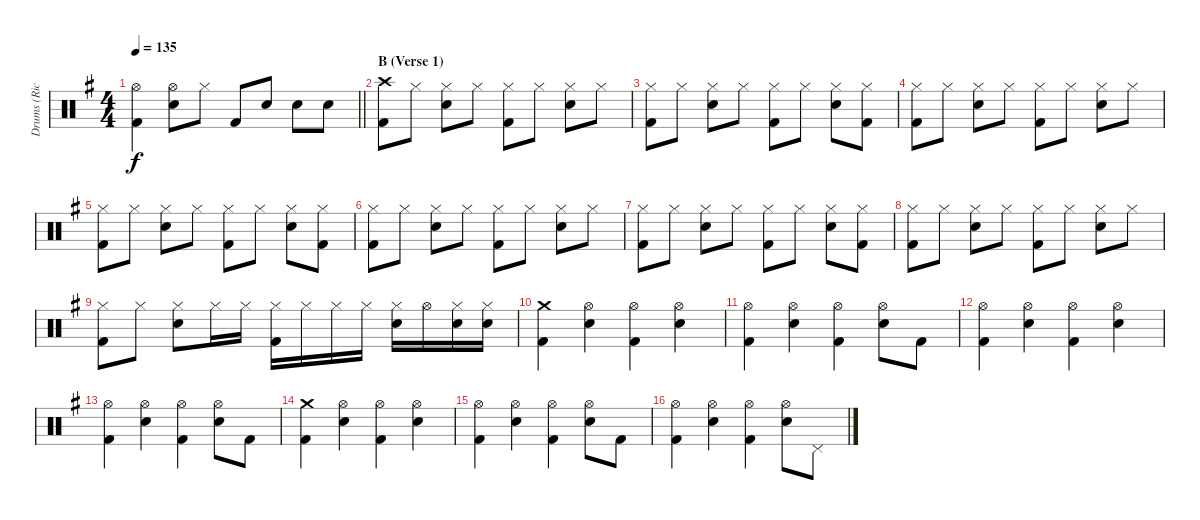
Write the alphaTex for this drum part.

\track ("Drums (Richard Evensand)" "Drums (Ric") {instrument percussion}
\staff {score}
\articulation defaults
\ts (4 4)
\tempo 135
\clef neutral
\barLineRight lightlight
\ks eminor
("Hi-Hat (open)" "Kick (hit) 2").4{dy f} ("Hi-Hat (open)" "Electric Snare (hit)").8 "Hi-Hat (closed)".8 "Kick (hit) 2".8 "Electric Snare (hit)".8 "Electric Snare (hit)".8 "Electric Snare (hit)".8 |
\section ("" "B (Verse 1)")
("Crash high (hit)" "Kick (hit) 2").8 "Hi-Hat (closed)".8 ("Hi-Hat (closed)" "Electric Snare (hit)").8 "Hi-Hat (closed)".8 ("Hi-Hat (closed)" "Kick (hit) 2").8 "Hi-Hat (closed)".8 ("Hi-Hat (closed)" "Electric Snare (hit)").8 "Hi-Hat (closed)".8 |
("Hi-Hat (closed)" "Kick (hit) 2").8 "Hi-Hat (closed)".8 ("Hi-Hat (closed)" "Electric Snare (hit)").8 "Hi-Hat (closed)".8 ("Hi-Hat (closed)" "Kick (hit) 2").8 "Hi-Hat (closed)".8 ("Hi-Hat (closed)" "Electric Snare (hit)").8 ("Hi-Hat (closed)" "Kick (hit) 2").8 |
("Hi-Hat (closed)" "Kick (hit) 2").8 "Hi-Hat (closed)".8 ("Hi-Hat (closed)" "Electric Snare (hit)").8 "Hi-Hat (closed)".8 ("Hi-Hat (closed)" "Kick (hit) 2").8 "Hi-Hat (closed)".8 ("Hi-Hat (closed)" "Electric Snare (hit)").8 "Hi-Hat (closed)".8 |
("Hi-Hat (closed)" "Kick (hit) 2").8 "Hi-Hat (closed)".8 ("Hi-Hat (closed)" "Electric Snare (hit)").8 "Hi-Hat (closed)".8 ("Hi-Hat (closed)" "Kick (hit) 2").8 "Hi-Hat (closed)".8 ("Hi-Hat (closed)" "Electric Snare (hit)").8 ("Hi-Hat (closed)" "Kick (hit) 2").8 |
("Hi-Hat (closed)" "Kick (hit) 2").8 "Hi-Hat (closed)".8 ("Hi-Hat (closed)" "Electric Snare (hit)").8 "Hi-Hat (closed)".8 ("Hi-Hat (closed)" "Kick (hit) 2").8 "Hi-Hat (closed)".8 ("Hi-Hat (closed)" "Electric Snare (hit)").8 "Hi-Hat (closed)".8 |
("Hi-Hat (closed)" "Kick (hit) 2").8 "Hi-Hat (closed)".8 ("Hi-Hat (closed)" "Electric Snare (hit)").8 "Hi-Hat (closed)".8 ("Hi-Hat (closed)" "Kick (hit) 2").8 "Hi-Hat (closed)".8 ("Hi-Hat (closed)" "Electric Snare (hit)").8 ("Hi-Hat (closed)" "Kick (hit) 2").8 |
("Hi-Hat (closed)" "Kick (hit) 2").8 "Hi-Hat (closed)".8 ("Hi-Hat (closed)" "Electric Snare (hit)").8 "Hi-Hat (closed)".8 ("Hi-Hat (closed)" "Kick (hit) 2").8 "Hi-Hat (closed)".8 ("Hi-Hat (closed)" "Electric Snare (hit)").8 "Hi-Hat (closed)".8 |
("Hi-Hat (closed)" "Kick (hit) 2").8 "Hi-Hat (closed)".8 ("Hi-Hat (closed)" "Electric Snare (hit)").8 "Hi-Hat (closed)".16 "Hi-Hat (closed)".16 ("Hi-Hat (closed)" "Kick (hit) 2").16 "Hi-Hat (closed)".16 "Hi-Hat (closed)".16 "Hi-Hat (closed)".16 ("Hi-Hat (closed)" "Electric Snare (hit)").16 "Hi-Hat (open)".16 ("Hi-Hat (closed)" "Electric Snare (hit)").16 ("Hi-Hat (closed)" "Electric Snare (hit)").16 |
("Crash medium (hit)" "Kick (hit) 2").4 ("Hi-Hat (open)" "Electric Snare (hit)").4 ("Hi-Hat (open)" "Kick (hit) 2").4 ("Hi-Hat (open)" "Electric Snare (hit)").4 |
("Hi-Hat (open)" "Kick (hit) 2").4 ("Hi-Hat (open)" "Electric Snare (hit)").4 ("Hi-Hat (open)" "Kick (hit) 2").4 ("Hi-Hat (open)" "Electric Snare (hit)").8 "Kick (hit) 2".8 |
("Hi-Hat (open)" "Kick (hit) 2").4 ("Hi-Hat (open)" "Electric Snare (hit)").4 ("Hi-Hat (open)" "Kick (hit) 2").4 ("Hi-Hat (open)" "Electric Snare (hit)").4 |
("Hi-Hat (open)" "Kick (hit) 2").4 ("Hi-Hat (open)" "Electric Snare (hit)").4 ("Hi-Hat (open)" "Kick (hit) 2").4 ("Hi-Hat (open)" "Electric Snare (hit)").8 "Kick (hit) 2".8 |
("Crash medium (hit)" "Kick (hit) 2").4 ("Hi-Hat (open)" "Electric Snare (hit)").4 ("Hi-Hat (open)" "Kick (hit) 2").4 ("Hi-Hat (open)" "Electric Snare (hit)").4 |
("Hi-Hat (open)" "Kick (hit) 2").4 ("Hi-Hat (open)" "Electric Snare (hit)").4 ("Hi-Hat (open)" "Kick (hit) 2").4 ("Hi-Hat (open)" "Electric Snare (hit)").8 "Kick (hit) 2".8 |
("Hi-Hat (open)" "Kick (hit) 2").4 ("Hi-Hat (open)" "Electric Snare (hit)").4 ("Hi-Hat (open)" "Kick (hit) 2").4 ("Hi-Hat (open)" "Electric Snare (hit)").8 "Pedal Hi-Hat (hit)".8
